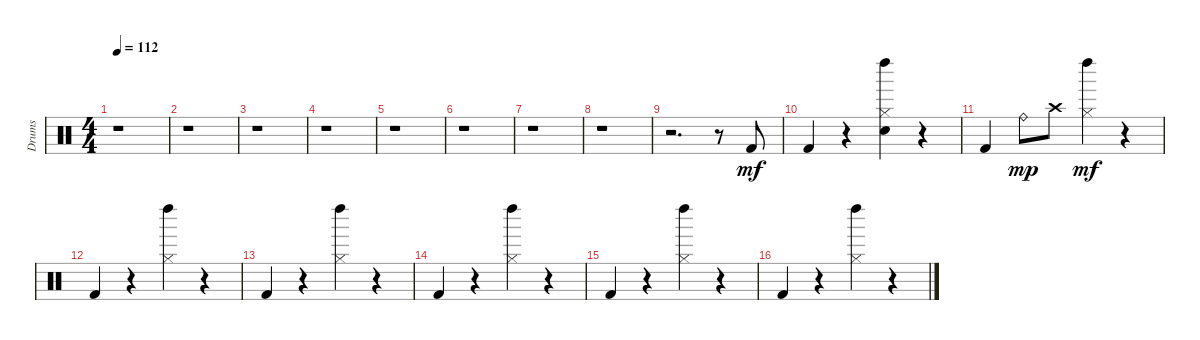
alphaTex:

\track ("Drums" "Drums") {instrument percussion}
\staff {score}
\articulation defaults
\ts (4 4)
\tempo 112
\clef neutral
\ks c
r.1{dy mf} |
r.1 |
r.1 |
r.1 |
r.1 |
r.1 |
r.1 |
r.1 |
r.2{d} r.8 "Kick (hit) 2".8 |
"Kick (hit) 2".4 r.4 ("Hi-Hat (closed)" "Snare (hit) 2" "Left Maraca (hit)").4 r.4 |
"Kick (hit) 2".4 "Ride (bell)".8{dy mp} "Crash high (hit)".8 ("Hi-Hat (closed)" "Left Maraca (hit)").4{dy mf} r.4 |
"Kick (hit) 2".4 r.4 ("Hi-Hat (closed)" "Left Maraca (hit)").4 r.4 |
"Kick (hit) 2".4 r.4 ("Hi-Hat (closed)" "Left Maraca (hit)").4 r.4 |
"Kick (hit) 2".4 r.4 ("Hi-Hat (closed)" "Left Maraca (hit)").4 r.4 |
"Kick (hit) 2".4 r.4 ("Hi-Hat (closed)" "Left Maraca (hit)").4 r.4 |
"Kick (hit) 2".4 r.4 ("Hi-Hat (closed)" "Left Maraca (hit)").4 r.4
